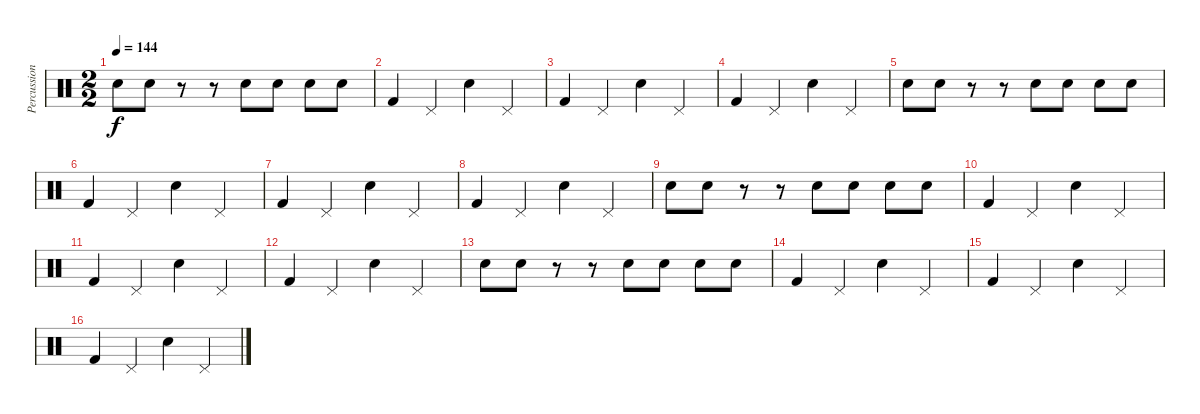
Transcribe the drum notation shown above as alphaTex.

\track ("Percussion" "Percussion") {instrument percussion}
\staff {score}
\articulation defaults
\ts (2 2)
\tempo 144
\clef neutral
\ks c "Snare (hit) 2".8{dy f} "Snare (hit) 2".8
r.8 r.8 "Electric Snare (hit)".8 "Electric Snare (hit)".8 "Snare (hit) 2".8 "Snare (hit) 2".8 |
"Kick (hit) 2".4 "Pedal Hi-Hat (hit)".4 "Snare (hit) 2".4 "Pedal Hi-Hat (hit)".4 |
"Kick (hit) 2".4 "Pedal Hi-Hat (hit)".4 "Snare (hit) 2".4 "Pedal Hi-Hat (hit)".4 |
"Kick (hit) 2".4 "Pedal Hi-Hat (hit)".4 "Snare (hit) 2".4 "Pedal Hi-Hat (hit)".4 |
"Snare (hit) 2".8 "Snare (hit) 2".8 r.8 r.8 "Electric Snare (hit)".8 "Electric Snare (hit)".8 "Snare (hit) 2".8 "Snare (hit) 2".8 |
"Kick (hit) 2".4 "Pedal Hi-Hat (hit)".4 "Snare (hit) 2".4 "Pedal Hi-Hat (hit)".4 |
"Kick (hit) 2".4 "Pedal Hi-Hat (hit)".4 "Snare (hit) 2".4 "Pedal Hi-Hat (hit)".4 |
"Kick (hit) 2".4 "Pedal Hi-Hat (hit)".4 "Snare (hit) 2".4 "Pedal Hi-Hat (hit)".4 |
"Snare (hit) 2".8 "Snare (hit) 2".8 r.8 r.8 "Electric Snare (hit)".8 "Electric Snare (hit)".8 "Snare (hit) 2".8 "Snare (hit) 2".8 |
"Kick (hit) 2".4 "Pedal Hi-Hat (hit)".4 "Snare (hit) 2".4 "Pedal Hi-Hat (hit)".4 |
"Kick (hit) 2".4 "Pedal Hi-Hat (hit)".4 "Snare (hit) 2".4 "Pedal Hi-Hat (hit)".4 |
"Kick (hit) 2".4 "Pedal Hi-Hat (hit)".4 "Snare (hit) 2".4 "Pedal Hi-Hat (hit)".4 |
"Snare (hit) 2".8 "Snare (hit) 2".8 r.8 r.8 "Electric Snare (hit)".8 "Electric Snare (hit)".8 "Snare (hit) 2".8 "Snare (hit) 2".8 |
"Kick (hit) 2".4 "Pedal Hi-Hat (hit)".4 "Snare (hit) 2".4 "Pedal Hi-Hat (hit)".4 |
"Kick (hit) 2".4 "Pedal Hi-Hat (hit)".4 "Snare (hit) 2".4 "Pedal Hi-Hat (hit)".4 |
"Kick (hit) 2".4 "Pedal Hi-Hat (hit)".4 "Snare (hit) 2".4 "Pedal Hi-Hat (hit)".4
